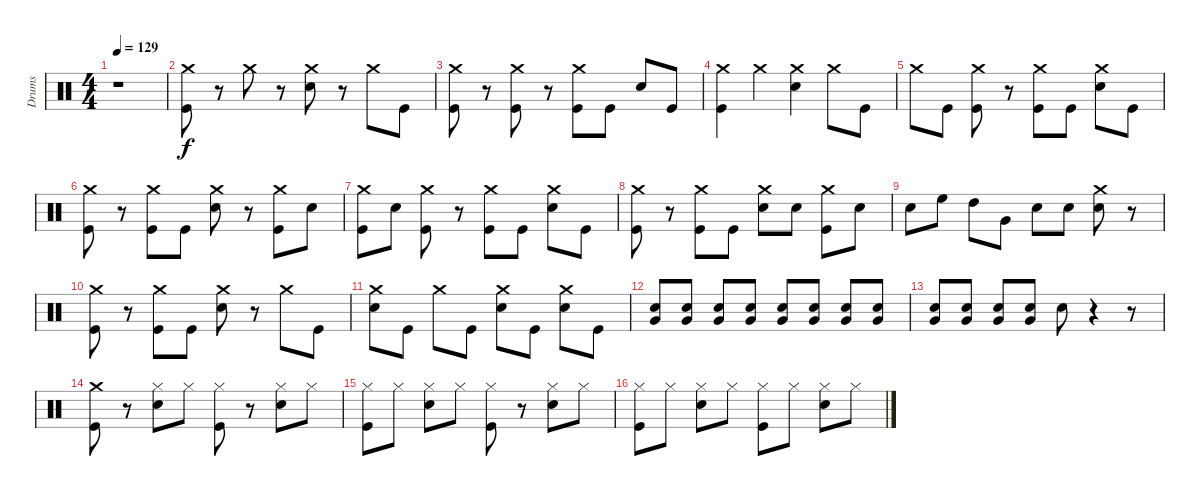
\track ("Drums" "Drums") {instrument percussion}
\staff {score}
\articulation defaults
\ts (4 4)
\tempo 129
\clef neutral
\ks c
r.1{dy f} |
("Crash medium (hit)" "Kick (hit)").8 r.8 "Crash medium (hit)".8 r.8 ("Snare (hit) 2" "Crash medium (hit)").8 r.8 "Crash medium (hit)".8 "Kick (hit)".8 |
("Crash medium (hit)" "Kick (hit)").8 r.8 ("Crash medium (hit)" "Kick (hit)").8 r.8 ("Crash medium (hit)" "Kick (hit)").8 "Kick (hit)".8 "Snare (hit) 2".8 "Kick (hit)".8 |
("Crash medium (hit)" "Kick (hit)").4 "Crash medium (hit)".4 ("Snare (hit) 2" "Crash medium (hit)").4 "Crash medium (hit)".8 "Kick (hit)".8 |
"Crash medium (hit)".8 "Kick (hit)".8 ("Kick (hit)" "Crash medium (hit)").8 r.8 ("Crash medium (hit)" "Kick (hit)").8 "Kick (hit)".8 ("Crash medium (hit)" "Snare (hit) 2").8 "Kick (hit)".8 |
("Kick (hit)" "Crash medium (hit)").8 r.8 ("Crash medium (hit)" "Kick (hit)").8 "Kick (hit)".8 ("Crash medium (hit)" "Snare (hit) 2").8 r.8 ("Kick (hit)" "Crash medium (hit)").8 "Snare (hit) 2".8 |
("Crash medium (hit)" "Kick (hit)").8 "Snare (hit) 2".8 ("Crash medium (hit)" "Kick (hit)").8 r.8 ("Kick (hit)" "Crash medium (hit)").8 "Kick (hit)".8 ("Crash medium (hit)" "Snare (hit) 2").8 "Kick (hit)".8 |
("Crash medium (hit)" "Kick (hit)").8 r.8 ("Crash medium (hit)" "Kick (hit)").8 "Kick (hit)".8 ("Crash medium (hit)" "Snare (hit) 2").8 "Snare (hit) 2".8 ("Kick (hit)" "Crash medium (hit)").8 "Snare (hit) 2".8 |
"Snare (hit) 2".8 "High Floor Tom (hit)".8 "High Tom (hit)".8 "Very Low Tom (hit)".8 "Snare (hit) 2".8 "Snare (hit) 2".8 ("Crash medium (hit)" "Snare (hit) 2").8 r.8 |
("Kick (hit)" "Crash medium (hit)").8 r.8 ("Kick (hit)" "Crash medium (hit)").8 "Kick (hit)".8 ("Crash medium (hit)" "Snare (hit) 2").8 r.8 "Crash medium (hit)".8 "Kick (hit)".8 |
("Crash medium (hit)" "Snare (hit) 2").8 "Kick (hit)".8 "Crash medium (hit)".8 "Kick (hit)".8 ("Crash medium (hit)" "Snare (hit) 2").8 "Kick (hit)".8 ("Crash medium (hit)" "Snare (hit) 2").8 "Kick (hit)".8 |
("Very Low Tom (hit)" "Snare (hit) 2").8 ("Very Low Tom (hit)" "Snare (hit) 2").8 ("Very Low Tom (hit)" "Snare (hit) 2").8 ("Very Low Tom (hit)" "Snare (hit) 2").8 ("Very Low Tom (hit)" "Snare (hit) 2").8 ("Very Low Tom (hit)" "Snare (hit) 2").8 ("Very Low Tom (hit)" "Snare (hit) 2").8 ("Very Low Tom (hit)" "Snare (hit) 2").8 |
("Very Low Tom (hit)" "Snare (hit) 2").8 ("Snare (hit) 2" "Very Low Tom (hit)").8 ("Snare (hit) 2" "Very Low Tom (hit)").8 ("Snare (hit) 2" "Very Low Tom (hit)").8 "Snare (hit) 2".8 r.4 r.8 |
("Crash medium (hit)" "Kick (hit)").8 r.8 ("Snare (hit) 2" "Hi-Hat (closed)").8 "Hi-Hat (closed)".8 ("Kick (hit)" "Hi-Hat (closed)").8 r.8 ("Snare (hit) 2" "Hi-Hat (closed)").8 "Hi-Hat (closed)".8 |
("Hi-Hat (closed)" "Kick (hit)").8 "Hi-Hat (closed)".8 ("Snare (hit) 2" "Hi-Hat (closed)").8 "Hi-Hat (closed)".8 ("Kick (hit)" "Hi-Hat (closed)").8 r.8 ("Snare (hit) 2" "Hi-Hat (closed)").8 "Hi-Hat (closed)".8 |
("Hi-Hat (closed)" "Kick (hit)").8 "Hi-Hat (closed)".8 ("Snare (hit) 2" "Hi-Hat (closed)").8 "Hi-Hat (closed)".8 ("Kick (hit)" "Hi-Hat (closed)").8 "Hi-Hat (closed)".8 ("Snare (hit) 2" "Hi-Hat (closed)").8 "Hi-Hat (closed)".8
